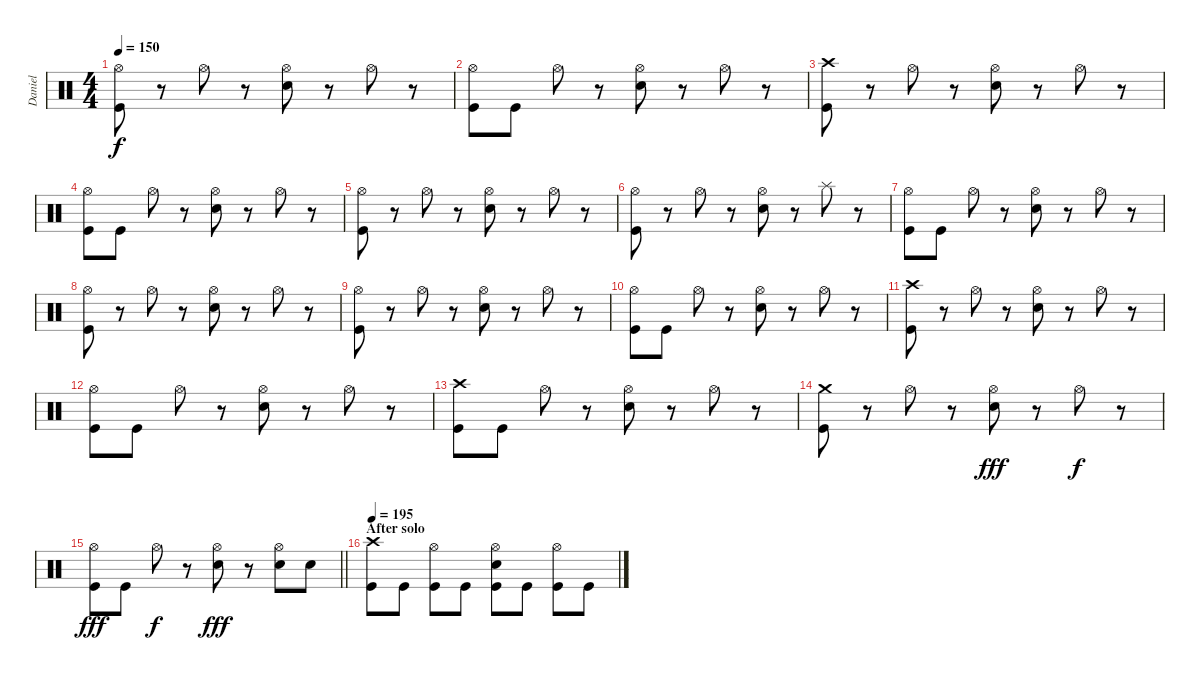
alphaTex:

\track ("Daniel" "Daniel") {instrument percussion}
\staff {score}
\articulation defaults
\ts (4 4)
\tempo 150
\clef neutral
\ks c
("Hi-Hat (open)" "Kick (hit)").8{dy f} r.8 "Hi-Hat (open)".8 r.8 ("Hi-Hat (open)" "Snare (hit) 2").8 r.8 "Hi-Hat (open)".8 r.8 |
("Hi-Hat (open)" "Kick (hit)").8 "Kick (hit)".8 "Hi-Hat (open)".8 r.8 ("Hi-Hat (open)" "Snare (hit) 2").8 r.8 "Hi-Hat (open)".8 r.8 |
("Crash high (hit)" "Kick (hit)").8 r.8 "Hi-Hat (open)".8 r.8 ("Hi-Hat (open)" "Snare (hit) 2").8 r.8 "Hi-Hat (open)".8 r.8 |
("Hi-Hat (open)" "Kick (hit)").8 "Kick (hit)".8 "Hi-Hat (open)".8 r.8 ("Hi-Hat (open)" "Snare (hit) 2").8 r.8 "Hi-Hat (open)".8 r.8 |
("Hi-Hat (open)" "Kick (hit)").8 r.8 "Hi-Hat (open)".8 r.8 ("Hi-Hat (open)" "Snare (hit) 2").8 r.8 "Hi-Hat (open)".8 r.8 |
("Hi-Hat (open)" "Kick (hit)").8 r.8 "Hi-Hat (open)".8 r.8 ("Hi-Hat (open)" "Snare (hit) 2").8 r.8 "Splash (hit)".8 r.8 |
("Hi-Hat (open)" "Kick (hit)").8 "Kick (hit)".8 "Hi-Hat (open)".8 r.8 ("Hi-Hat (open)" "Snare (hit) 2").8 r.8 "Hi-Hat (open)".8 r.8 |
("Hi-Hat (open)" "Kick (hit)").8 r.8 "Hi-Hat (open)".8 r.8 ("Hi-Hat (open)" "Snare (hit) 2").8 r.8 "Hi-Hat (open)".8 r.8 |
("Hi-Hat (open)" "Kick (hit)").8 r.8 "Hi-Hat (open)".8 r.8 ("Hi-Hat (open)" "Snare (hit) 2").8 r.8 "Hi-Hat (open)".8 r.8 |
("Hi-Hat (open)" "Kick (hit)").8 "Kick (hit)".8 "Hi-Hat (open)".8 r.8 ("Hi-Hat (open)" "Snare (hit) 2").8 r.8 "Hi-Hat (open)".8 r.8 |
("Crash high (hit)" "Kick (hit)").8 r.8 "Hi-Hat (open)".8 r.8 ("Hi-Hat (open)" "Snare (hit) 2").8 r.8 "Hi-Hat (open)".8 r.8 |
("Hi-Hat (open)" "Kick (hit)").8 "Kick (hit)".8 "Hi-Hat (open)".8 r.8 ("Hi-Hat (open)" "Snare (hit) 2").8 r.8 "Hi-Hat (open)".8 r.8 |
("Crash high (hit)" "Kick (hit)").8 "Kick (hit)".8 "Hi-Hat (open)".8 r.8 ("Hi-Hat (open)" "Snare (hit) 2").8 r.8 "Hi-Hat (open)".8 r.8 |
("Crash medium (hit)" "Kick (hit)").8 r.8 "Hi-Hat (open)".8 r.8 ("Hi-Hat (open)" "Snare (hit) 2").8{dy fff} r.8 "Hi-Hat (open)".8{dy f} r.8 |
\barLineRight lightlight
("Hi-Hat (open)" "Kick (hit)").8{dy fff} "Kick (hit)".8 "Hi-Hat (open)".8{dy f} r.8 ("Hi-Hat (open)" "Snare (hit) 2").8{dy fff} r.8 ("Hi-Hat (open)" "Snare (hit) 2").8 "Snare (hit) 2".8 |
\section ("" "After solo")
\tempo 195
("Crash high (hit)" "Kick (hit)").8 "Kick (hit)".8 ("Hi-Hat (open)" "Kick (hit)").8 "Kick (hit)".8 ("Hi-Hat (open)" "Snare (hit) 2" "Kick (hit)").8 "Kick (hit)".8 ("Hi-Hat (open)" "Kick (hit)").8 "Kick (hit)".8
